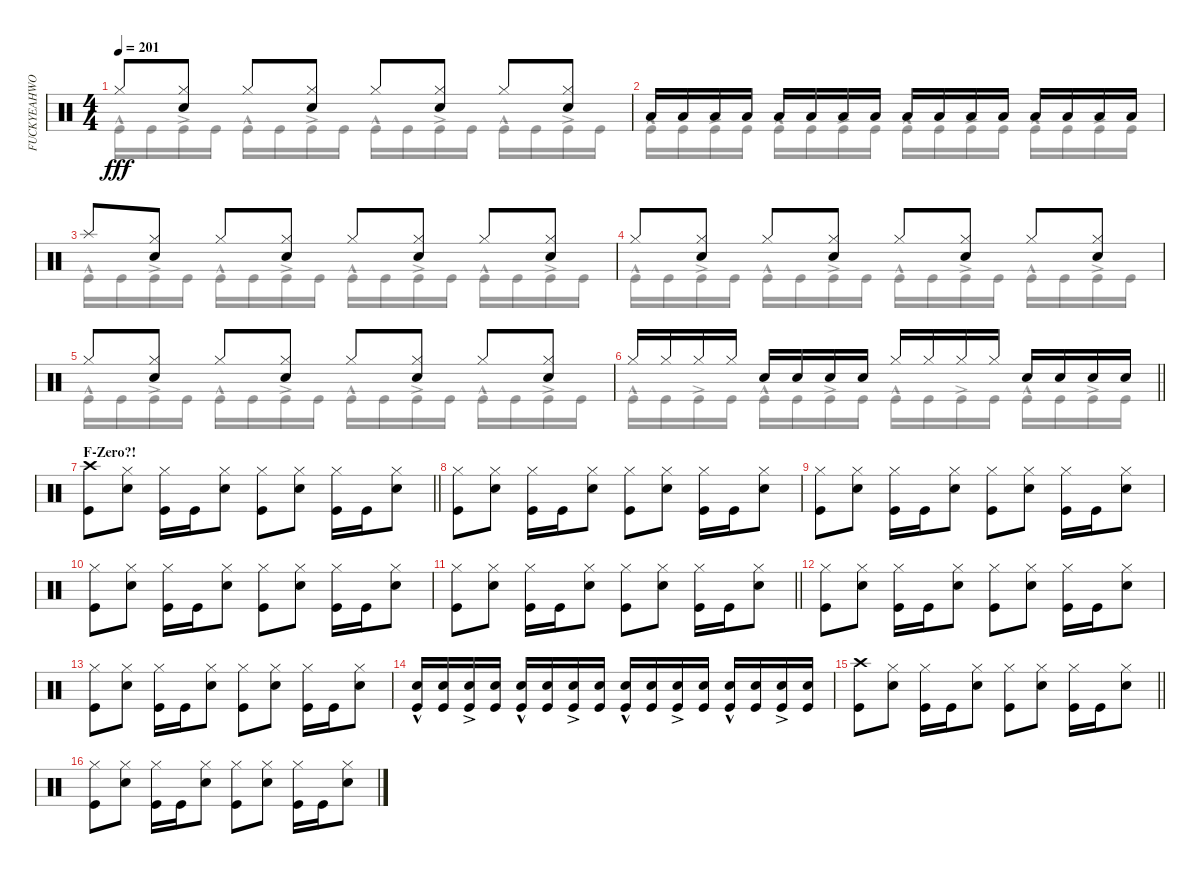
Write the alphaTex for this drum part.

\track ("FUCKYEAHWOOTDAVEMACKINTOSH(Percussion)" "FUCKYEAHWO") {instrument percussion}
\staff {score}
\articulation defaults
\voice
\ts (4 4)
\tempo 201
\clef neutral
\ks c "Hi-Hat (closed)".8{dy fff}
("Hi-Hat (closed)" "Snare (hit) 2").8 "Hi-Hat (closed)".8 ("Hi-Hat (closed)" "Snare (hit) 2").8 "Hi-Hat (closed)".8 ("Hi-Hat (closed)" "Snare (hit) 2").8 "Hi-Hat (closed)".8 ("Hi-Hat (closed)" "Snare (hit) 2").8 |
"Low Tom (hit)".16 "Low Tom (hit)".16 "Low Tom (hit)".16 "Low Tom (hit)".16 "Low Tom (hit)".16 "Low Tom (hit)".16 "Low Tom (hit)".16 "Low Tom (hit)".16 "Low Tom (hit)".16 "Low Tom (hit)".16 "Low Tom (hit)".16 "Low Tom (hit)".16 "Low Tom (hit)".16 "Low Tom (hit)".16 "Low Tom (hit)".16 "Low Tom (hit)".16 |
"Splash (hit)".8 ("Hi-Hat (closed)" "Snare (hit) 2").8 "Hi-Hat (closed)".8 ("Hi-Hat (closed)" "Snare (hit) 2").8 "Hi-Hat (closed)".8 ("Hi-Hat (closed)" "Snare (hit) 2").8 "Hi-Hat (closed)".8 ("Hi-Hat (closed)" "Snare (hit) 2").8 |
"Hi-Hat (closed)".8 ("Hi-Hat (closed)" "Snare (hit) 2").8 "Hi-Hat (closed)".8 ("Hi-Hat (closed)" "Snare (hit) 2").8 "Hi-Hat (closed)".8 ("Hi-Hat (closed)" "Snare (hit) 2").8 "Hi-Hat (closed)".8 ("Hi-Hat (closed)" "Snare (hit) 2").8 |
"Hi-Hat (closed)".8 ("Hi-Hat (closed)" "Snare (hit) 2").8 "Hi-Hat (closed)".8 ("Hi-Hat (closed)" "Snare (hit) 2").8 "Hi-Hat (closed)".8 ("Hi-Hat (closed)" "Snare (hit) 2").8 "Hi-Hat (closed)".8 ("Hi-Hat (closed)" "Snare (hit) 2").8 |
\barLineRight lightlight "Hi-Hat (closed)".16 "Hi-Hat (closed)".16 "Hi-Hat (closed)".16 "Hi-Hat (closed)".16 "Snare (hit) 2".16 "Snare (hit) 2".16 "Snare (hit) 2".16 "Snare (hit) 2".16 "Hi-Hat (closed)".16 "Hi-Hat (closed)".16 "Hi-Hat (closed)".16 "Hi-Hat (closed)".16 "Snare (hit) 2".16 "Snare (hit) 2".16 "Snare (hit) 2".16 "Snare (hit) 2".16
|
\section ("" "F-Zero?!")
\barLineRight lightlight
("Kick (hit)" "Crash high (hit)").8 ("Snare (hit) 2" "Hi-Hat (closed)").8 ("Kick (hit)" "Hi-Hat (closed)").16 "Kick (hit)".16 ("Snare (hit) 2" "Hi-Hat (closed)").8 ("Kick (hit)" "Hi-Hat (closed)").8 ("Snare (hit) 2" "Hi-Hat (closed)").8 ("Kick (hit)" "Hi-Hat (closed)").16 "Kick (hit)".16 ("Snare (hit) 2" "Hi-Hat (closed)").8 |
("Kick (hit)" "Hi-Hat (closed)").8 ("Snare (hit) 2" "Hi-Hat (closed)").8 ("Kick (hit)" "Hi-Hat (closed)").16 "Kick (hit)".16 ("Snare (hit) 2" "Hi-Hat (closed)").8 ("Kick (hit)" "Hi-Hat (closed)").8 ("Snare (hit) 2" "Hi-Hat (closed)").8 ("Kick (hit)" "Hi-Hat (closed)").16 "Kick (hit)".16 ("Snare (hit) 2" "Hi-Hat (closed)").8 |
("Kick (hit)" "Hi-Hat (closed)").8 ("Snare (hit) 2" "Hi-Hat (closed)").8 ("Kick (hit)" "Hi-Hat (closed)").16 "Kick (hit)".16 ("Snare (hit) 2" "Hi-Hat (closed)").8 ("Kick (hit)" "Hi-Hat (closed)").8 ("Snare (hit) 2" "Hi-Hat (closed)").8 ("Kick (hit)" "Hi-Hat (closed)").16 "Kick (hit)".16 ("Snare (hit) 2" "Hi-Hat (closed)").8 |
("Kick (hit)" "Hi-Hat (closed)").8 ("Snare (hit) 2" "Hi-Hat (closed)").8 ("Kick (hit)" "Hi-Hat (closed)").16 "Kick (hit)".16 ("Snare (hit) 2" "Hi-Hat (closed)").8 ("Kick (hit)" "Hi-Hat (closed)").8 ("Snare (hit) 2" "Hi-Hat (closed)").8 ("Kick (hit)" "Hi-Hat (closed)").16 "Kick (hit)".16 ("Snare (hit) 2" "Hi-Hat (closed)").8 |
\barLineRight lightlight
("Kick (hit)" "Hi-Hat (closed)").8 ("Snare (hit) 2" "Hi-Hat (closed)").8 ("Kick (hit)" "Hi-Hat (closed)").16 "Kick (hit)".16 ("Snare (hit) 2" "Hi-Hat (closed)").8 ("Kick (hit)" "Hi-Hat (closed)").8 ("Snare (hit) 2" "Hi-Hat (closed)").8 ("Kick (hit)" "Hi-Hat (closed)").16 "Kick (hit)".16 ("Snare (hit) 2" "Hi-Hat (closed)").8 |
("Kick (hit)" "Hi-Hat (closed)").8 ("Snare (hit) 2" "Hi-Hat (closed)").8 ("Kick (hit)" "Hi-Hat (closed)").16 "Kick (hit)".16 ("Snare (hit) 2" "Hi-Hat (closed)").8 ("Kick (hit)" "Hi-Hat (closed)").8 ("Snare (hit) 2" "Hi-Hat (closed)").8 ("Kick (hit)" "Hi-Hat (closed)").16 "Kick (hit)".16 ("Snare (hit) 2" "Hi-Hat (closed)").8 |
("Kick (hit)" "Hi-Hat (closed)").8 ("Snare (hit) 2" "Hi-Hat (closed)").8 ("Kick (hit)" "Hi-Hat (closed)").16 "Kick (hit)".16 ("Snare (hit) 2" "Hi-Hat (closed)").8 ("Kick (hit)" "Hi-Hat (closed)").8 ("Snare (hit) 2" "Hi-Hat (closed)").8 ("Kick (hit)" "Hi-Hat (closed)").16 "Kick (hit)".16 ("Snare (hit) 2" "Hi-Hat (closed)").8 |
("Kick (hit)" "Snare (hit) 2"{hac}).16 ("Kick (hit)" "Snare (hit) 2").16 ("Kick (hit)" "Snare (hit) 2"{ac}).16 ("Kick (hit)" "Snare (hit) 2").16 ("Kick (hit)" "Snare (hit) 2"{hac}).16 ("Kick (hit)" "Snare (hit) 2").16 ("Kick (hit)" "Snare (hit) 2"{ac}).16 ("Kick (hit)" "Snare (hit) 2").16 ("Kick (hit)" "Snare (hit) 2"{hac}).16 ("Kick (hit)" "Snare (hit) 2").16 ("Kick (hit)" "Snare (hit) 2"{ac}).16 ("Kick (hit)" "Snare (hit) 2").16 ("Kick (hit)" "Snare (hit) 2"{hac}).16 ("Snare (hit) 2" "Kick (hit)").16 ("Kick (hit)" "Snare (hit) 2"{ac}).16 ("Kick (hit)" "Snare (hit) 2").16 |
\barLineRight lightlight
("Kick (hit)" "Crash high (hit)").8 ("Snare (hit) 2" "Hi-Hat (closed)").8 ("Kick (hit)" "Hi-Hat (closed)").16 "Kick (hit)".16 ("Snare (hit) 2" "Hi-Hat (closed)").8 ("Kick (hit)" "Hi-Hat (closed)").8 ("Snare (hit) 2" "Hi-Hat (closed)").8 ("Kick (hit)" "Hi-Hat (closed)").16 "Kick (hit)".16 ("Snare (hit) 2" "Hi-Hat (closed)").8 |
("Kick (hit)" "Hi-Hat (closed)").8 ("Snare (hit) 2" "Hi-Hat (closed)").8 ("Kick (hit)" "Hi-Hat (closed)").16 "Kick (hit)".16 ("Snare (hit) 2" "Hi-Hat (closed)").8 ("Kick (hit)" "Hi-Hat (closed)").8 ("Snare (hit) 2" "Hi-Hat (closed)").8 ("Kick (hit)" "Hi-Hat (closed)").16 "Kick (hit)".16 ("Snare (hit) 2" "Hi-Hat (closed)").8
\voice
\clef neutral
\ottava regular
\simile none
\ks c "Kick (hit)"{hac}.16{dy fff} "Kick (hit)".16 "Kick (hit)"{ac}.16 "Kick (hit)".16 "Kick (hit)"{hac}.16 "Kick (hit)".16 "Kick (hit)"{ac}.16 "Kick (hit)".16 "Kick (hit)"{hac}.16 "Kick (hit)".16 "Kick (hit)"{ac}.16 "Kick (hit)".16 "Kick (hit)"{hac}.16 "Kick (hit)".16 "Kick (hit)"{ac}.16 "Kick (hit)".16
|
"Kick (hit)"{hac}.16 "Kick (hit)".16 "Kick (hit)"{ac}.16 "Kick (hit)".16 "Kick (hit)"{hac}.16 "Kick (hit)".16 "Kick (hit)"{ac}.16 "Kick (hit)".16 "Kick (hit)"{hac}.16 "Kick (hit)".16 "Kick (hit)"{ac}.16 "Kick (hit)".16 "Kick (hit)"{hac}.16 "Kick (hit)".16 "Kick (hit)"{ac}.16 "Kick (hit)".16 |
"Kick (hit)"{hac}.16 "Kick (hit)".16 "Kick (hit)"{ac}.16 "Kick (hit)".16 "Kick (hit)"{hac}.16 "Kick (hit)".16 "Kick (hit)"{ac}.16 "Kick (hit)".16 "Kick (hit)"{hac}.16 "Kick (hit)".16 "Kick (hit)"{ac}.16 "Kick (hit)".16 "Kick (hit)"{hac}.16 "Kick (hit)".16 "Kick (hit)"{ac}.16 "Kick (hit)".16 |
"Kick (hit)"{hac}.16 "Kick (hit)".16 "Kick (hit)"{ac}.16 "Kick (hit)".16 "Kick (hit)"{hac}.16 "Kick (hit)".16 "Kick (hit)"{ac}.16 "Kick (hit)".16 "Kick (hit)"{hac}.16 "Kick (hit)".16 "Kick (hit)"{ac}.16 "Kick (hit)".16 "Kick (hit)"{hac}.16 "Kick (hit)".16 "Kick (hit)"{ac}.16 "Kick (hit)".16 |
"Kick (hit)"{hac}.16 "Kick (hit)".16 "Kick (hit)"{ac}.16 "Kick (hit)".16 "Kick (hit)"{hac}.16 "Kick (hit)".16 "Kick (hit)"{ac}.16 "Kick (hit)".16 "Kick (hit)"{hac}.16 "Kick (hit)".16 "Kick (hit)"{ac}.16 "Kick (hit)".16 "Kick (hit)"{hac}.16 "Kick (hit)".16 "Kick (hit)"{ac}.16 "Kick (hit)".16 |
\barLineRight lightlight "Kick (hit)"{hac}.16 "Kick (hit)".16 "Kick (hit)"{ac}.16 "Kick (hit)".16 "Kick (hit)"{hac}.16 "Kick (hit)".16 "Kick (hit)"{ac}.16 "Kick (hit)".16 "Kick (hit)"{hac}.16 "Kick (hit)".16 "Kick (hit)"{ac}.16 "Kick (hit)".16 "Kick (hit)"{hac}.16 "Kick (hit)".16 "Kick (hit)"{ac}.16 "Kick (hit)".16
|
\barLineRight lightlight
|
|
|
|
\barLineRight lightlight
|
|
|
|
\barLineRight lightlight
|
